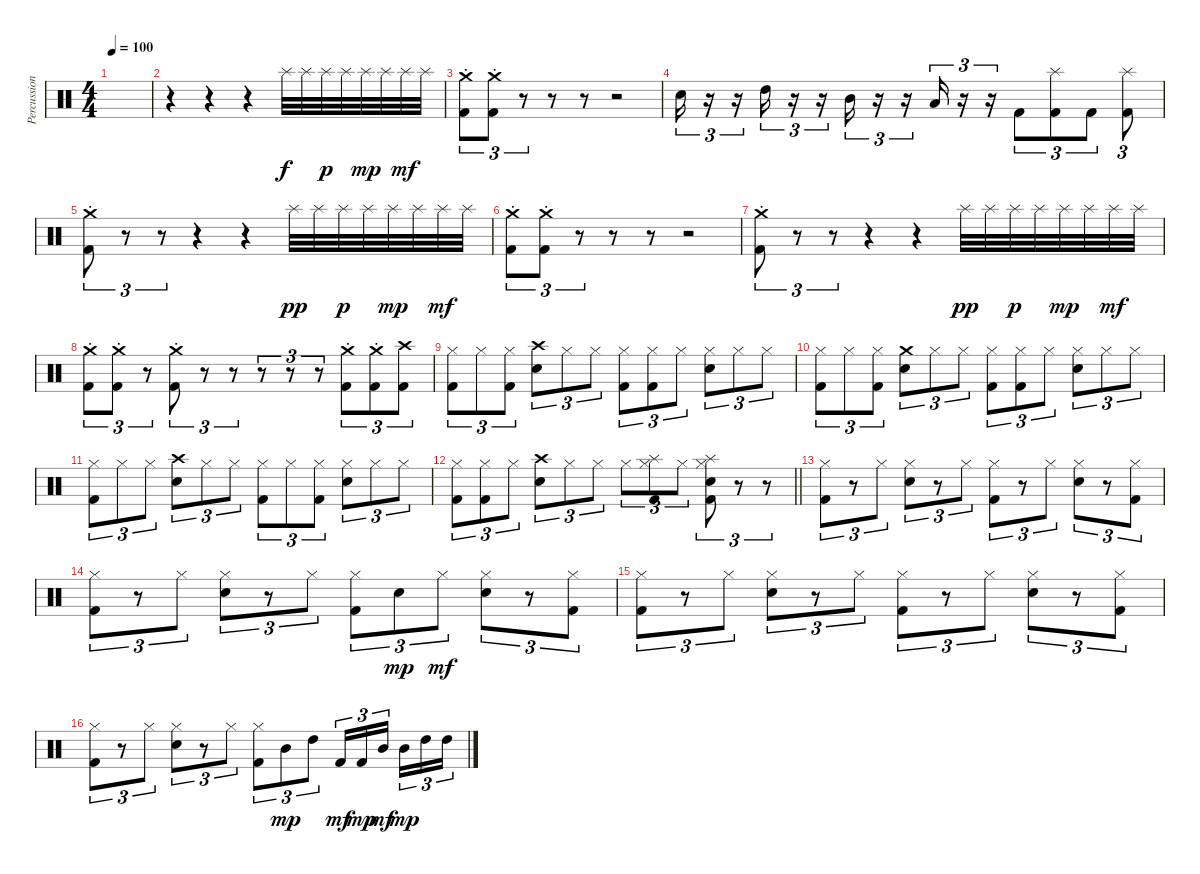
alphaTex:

\track ("Percussion" "Percussion") {instrument percussion}
\staff {score}
\articulation defaults
\ts (4 4)
\tempo 100
\clef neutral
\ks c
|
r.4 r.4 r.4 "Splash (hit)".32 "Splash (hit)".32 "Splash (hit)".32{dy p} "Splash (hit)".32 "Splash (hit)".32{dy mp} "Splash (hit)".32 "Splash (hit)".32{dy mf} "Splash (hit)".32 |
("Crash medium (hit)"{st} "Kick (hit) 2").8{tu (3 2)} ("Crash medium (hit)"{st} "Kick (hit) 2").8{tu (3 2)} r.8{tu (3 2)} r.8 r.8 r.2 |
"Snare (hit) 2".16{tu (3 2)} r.16{tu (3 2)} r.16{tu (3 2)} "High Tom (hit)".16{tu (3 2)} r.16{tu (3 2)} r.16{tu (3 2)} "Mid Tom (hit)".16{tu (3 2)} r.16{tu (3 2)} r.16{tu (3 2)} "Low Tom (hit)".16{tu (3 2)} r.16{tu (3 2)} r.16{tu (3 2)} "Kick (hit) 2".8{tu (3 2)} ("Splash (hit)" "Kick (hit) 2").8{tu (3 2)} "Kick (hit) 2".8{tu (3 2)} ("Splash (hit)" "Kick (hit) 2").8{tu (3 2)} |
("Crash medium (hit)"{st} "Kick (hit) 2").8{tu (3 2)} r.8{tu (3 2)} r.8{tu (3 2)} r.4 r.4 "Splash (hit)".32{dy pp} "Splash (hit)".32 "Splash (hit)".32{dy p} "Splash (hit)".32 "Splash (hit)".32{dy mp} "Splash (hit)".32 "Splash (hit)".32{dy mf} "Splash (hit)".32 |
("Crash medium (hit)"{st} "Kick (hit) 2").8{tu (3 2)} ("Crash medium (hit)"{st} "Kick (hit) 2").8{tu (3 2)} r.8{tu (3 2)} r.8 r.8 r.2 |
("Crash medium (hit)"{st} "Kick (hit) 2").8{tu (3 2)} r.8{tu (3 2)} r.8{tu (3 2)} r.4 r.4 "Splash (hit)".32{dy pp} "Splash (hit)".32 "Splash (hit)".32{dy p} "Splash (hit)".32 "Splash (hit)".32{dy mp} "Splash (hit)".32 "Splash (hit)".32{dy mf} "Splash (hit)".32 |
("Crash medium (hit)"{st} "Kick (hit) 2").8{tu (3 2)} ("Crash medium (hit)"{st} "Kick (hit) 2").8{tu (3 2)} r.8{tu (3 2)} ("Crash medium (hit)"{st} "Kick (hit) 2").8{tu (3 2)} r.8{tu (3 2)} r.8{tu (3 2)} r.8{tu (3 2)} r.8{tu (3 2)} r.8{tu (3 2)} ("Crash medium (hit)"{st} "Kick (hit) 2").8{tu (3 2)} ("Crash medium (hit)"{st} "Kick (hit) 2").8{tu (3 2)} ("Crash high (hit)" "Kick (hit) 2").8{tu (3 2)} |
("Kick (hit) 2" "Hi-Hat (closed)").8{tu (3 2)} "Hi-Hat (closed)".8{tu (3 2)} ("Kick (hit) 2" "Hi-Hat (closed)").8{tu (3 2)} ("Crash high (hit)" "Snare (hit) 2").8{tu (3 2)} "Hi-Hat (closed)".8{tu (3 2)} "Hi-Hat (closed)".8{tu (3 2)} ("Kick (hit) 2" "Hi-Hat (closed)").8{tu (3 2)} ("Kick (hit) 2" "Hi-Hat (closed)").8{tu (3 2)} "Hi-Hat (closed)".8{tu (3 2)} ("Snare (hit) 2" "Hi-Hat (closed)").8{tu (3 2)} "Hi-Hat (closed)".8{tu (3 2)} "Hi-Hat (closed)".8{tu (3 2)} |
("Kick (hit) 2" "Hi-Hat (closed)").8{tu (3 2)} "Hi-Hat (closed)".8{tu (3 2)} ("Kick (hit) 2" "Hi-Hat (closed)").8{tu (3 2)} ("Crash medium (hit)" "Snare (hit) 2").8{tu (3 2)} "Hi-Hat (closed)".8{tu (3 2)} "Hi-Hat (closed)".8{tu (3 2)} ("Kick (hit) 2" "Hi-Hat (closed)").8{tu (3 2)} ("Kick (hit) 2" "Hi-Hat (closed)").8{tu (3 2)} "Hi-Hat (closed)".8{tu (3 2)} ("Snare (hit) 2" "Hi-Hat (closed)").8{tu (3 2)} "Hi-Hat (closed)".8{tu (3 2)} "Hi-Hat (closed)".8{tu (3 2)} |
("Kick (hit) 2" "Hi-Hat (closed)").8{tu (3 2)} "Hi-Hat (closed)".8{tu (3 2)} "Hi-Hat (closed)".8{tu (3 2)} ("Crash high (hit)" "Snare (hit) 2").8{tu (3 2)} "Hi-Hat (closed)".8{tu (3 2)} "Hi-Hat (closed)".8{tu (3 2)} ("Kick (hit) 2" "Hi-Hat (closed)").8{tu (3 2)} "Hi-Hat (closed)".8{tu (3 2)} ("Kick (hit) 2" "Hi-Hat (closed)").8{tu (3 2)} ("Snare (hit) 2" "Hi-Hat (closed)").8{tu (3 2)} "Hi-Hat (closed)".8{tu (3 2)} "Hi-Hat (closed)".8{tu (3 2)} |
\barLineRight lightlight
("Kick (hit) 2" "Hi-Hat (closed)").8{tu (3 2)} ("Kick (hit) 2" "Hi-Hat (closed)").8{tu (3 2)} "Hi-Hat (closed)".8{tu (3 2)} ("Crash high (hit)" "Snare (hit) 2").8{tu (3 2)} "Hi-Hat (closed)".8{tu (3 2)} "Hi-Hat (closed)".8{tu (3 2)} "Hi-Hat (closed)".8{tu (3 2)} ("Splash (hit)" "Kick (hit) 2" "Hi-Hat (closed)").8{tu (3 2)} "Hi-Hat (closed)".8{tu (3 2)} ("Splash (hit)" "Kick (hit) 2" "Snare (hit) 2" "Hi-Hat (closed)").8{tu (3 2)} r.8{tu (3 2)} r.8{tu (3 2)} |
("Kick (hit) 2" "Hi-Hat (closed)").8{tu (3 2)} r.8{tu (3 2)} "Hi-Hat (closed)".8{tu (3 2)} ("Snare (hit) 2" "Hi-Hat (closed)").8{tu (3 2)} r.8{tu (3 2)} "Hi-Hat (closed)".8{tu (3 2)} ("Kick (hit) 2" "Hi-Hat (closed)").8{tu (3 2)} r.8{tu (3 2)} "Hi-Hat (closed)".8{tu (3 2)} ("Snare (hit) 2" "Hi-Hat (closed)").8{tu (3 2)} r.8{tu (3 2)} ("Kick (hit) 2" "Hi-Hat (closed)").8{tu (3 2)} |
("Kick (hit) 2" "Hi-Hat (closed)").8{tu (3 2)} r.8{tu (3 2)} "Hi-Hat (closed)".8{tu (3 2)} ("Snare (hit) 2" "Hi-Hat (closed)").8{tu (3 2)} r.8{tu (3 2)} "Hi-Hat (closed)".8{tu (3 2)} ("Kick (hit) 2" "Hi-Hat (closed)").8{tu (3 2)} "Snare (hit) 2".8{tu (3 2) dy mp} "Hi-Hat (closed)".8{tu (3 2) dy mf} ("Snare (hit) 2" "Hi-Hat (closed)").8{tu (3 2)} r.8{tu (3 2)} ("Kick (hit) 2" "Hi-Hat (closed)").8{tu (3 2)} |
("Kick (hit) 2" "Hi-Hat (closed)").8{tu (3 2)} r.8{tu (3 2)} "Hi-Hat (closed)".8{tu (3 2)} ("Snare (hit) 2" "Hi-Hat (closed)").8{tu (3 2)} r.8{tu (3 2)} "Hi-Hat (closed)".8{tu (3 2)} ("Kick (hit) 2" "Hi-Hat (closed)").8{tu (3 2)} r.8{tu (3 2)} "Hi-Hat (closed)".8{tu (3 2)} ("Snare (hit) 2" "Hi-Hat (closed)").8{tu (3 2)} r.8{tu (3 2)} ("Kick (hit) 2" "Hi-Hat (closed)").8{tu (3 2)} |
("Kick (hit) 2" "Hi-Hat (closed)").8{tu (3 2)} r.8{tu (3 2)} "Hi-Hat (closed)".8{tu (3 2)} ("Snare (hit) 2" "Hi-Hat (closed)").8{tu (3 2)} r.8{tu (3 2)} "Hi-Hat (closed)".8{tu (3 2)} ("Kick (hit) 2" "Hi-Hat (closed)").8{tu (3 2)} "Mid Tom (hit)".8{tu (3 2) dy mp} "High Tom (hit)".8{tu (3 2)} "Kick (hit) 2".16{tu (3 2) dy mf} "Kick (hit) 2".16{tu (3 2) dy mp} "Mid Tom (hit)".16{tu (3 2) dy mf beam splitsecondary} "Mid Tom (hit)".16{tu (3 2) dy mp} "High Tom (hit)".16{tu (3 2)} "High Tom (hit)".16{tu (3 2)}
